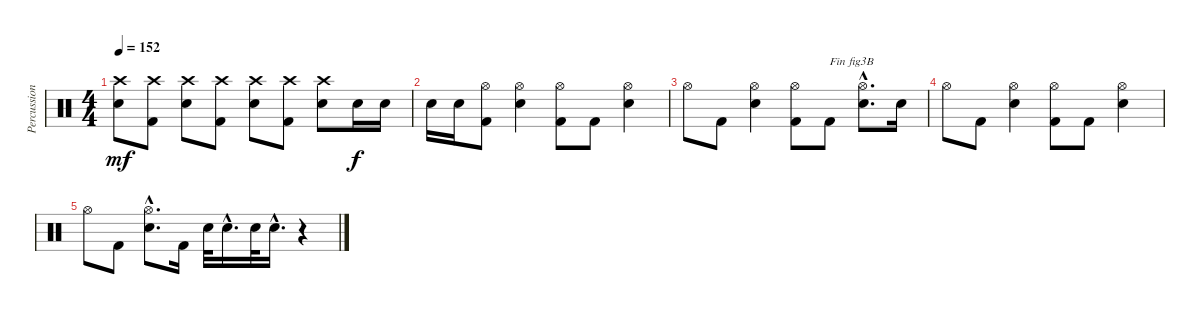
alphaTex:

\track ("Percussions" "Percussion") {instrument percussion}
\staff {score}
\articulation defaults
\ts (4 4)
\tempo 152
\clef neutral
\ks c
("Electric Snare (hit)" "Crash high (hit)").8{dy mf} ("Kick (hit) 2" "Crash high (hit)").8 ("Electric Snare (hit)" "Crash high (hit)").8 ("Kick (hit) 2" "Crash high (hit)").8 ("Electric Snare (hit)" "Crash high (hit)").8 ("Kick (hit) 2" "Crash high (hit)").8 ("Electric Snare (hit)" "Crash high (hit)").8 "Electric Snare (hit)".16{dy f} "Electric Snare (hit)".16 |
"Electric Snare (hit)".16 "Electric Snare (hit)".16 ("Kick (hit) 2" "Hi-Hat (open)").8 ("Electric Snare (hit)" "Hi-Hat (open)").4 ("Kick (hit) 2" "Hi-Hat (open)").8 "Kick (hit) 2".8 ("Electric Snare (hit)" "Hi-Hat (open)").4 |
"Hi-Hat (open)".8 "Kick (hit) 2".8 ("Electric Snare (hit)" "Hi-Hat (open)").4 ("Kick (hit) 2" "Hi-Hat (open)").8 "Kick (hit) 2".8{txt "Fin fig3B"} ("Electric Snare (hit)"{hac} "Hi-Hat (open)"{hac}).8{d} "Electric Snare (hit)".16 |
"Hi-Hat (open)".8 "Kick (hit) 2".8 ("Electric Snare (hit)" "Hi-Hat (open)").4 ("Kick (hit) 2" "Hi-Hat (open)").8 "Kick (hit) 2".8 ("Electric Snare (hit)" "Hi-Hat (open)").4 |
"Hi-Hat (open)".8 "Kick (hit) 2".8 ("Electric Snare (hit)"{hac} "Hi-Hat (open)"{hac}).8{d} "Kick (hit) 2".16 "Electric Snare (hit)".32 "Electric Snare (hit)"{hac}.16{d} "Electric Snare (hit)".32 "Electric Snare (hit)"{hac}.16{d} r.4
